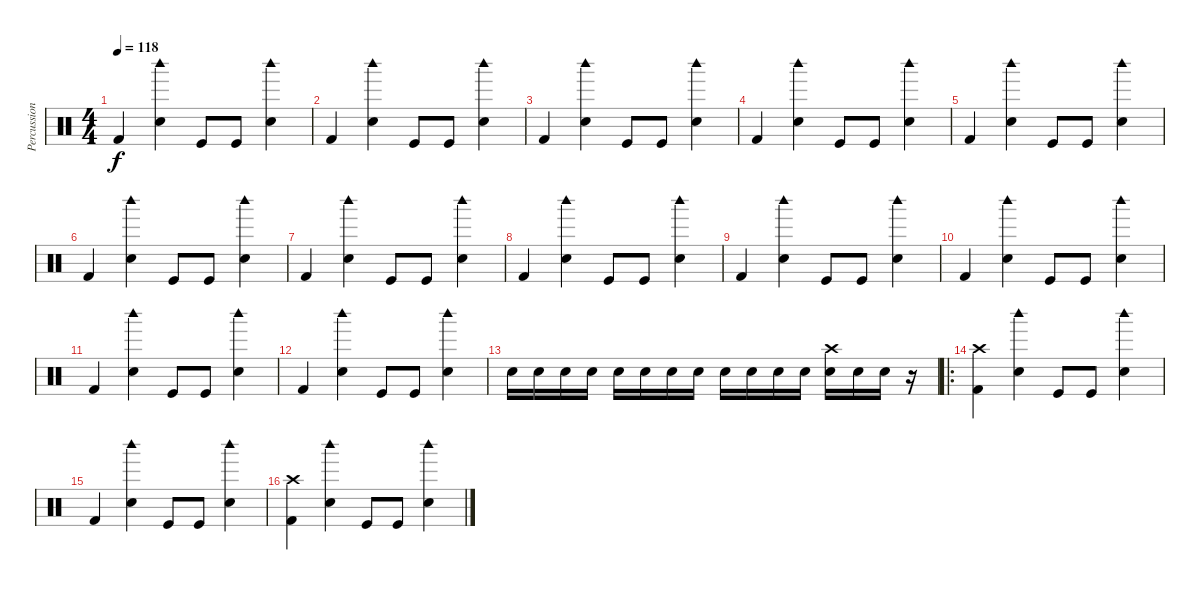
\track ("Percussion" "Percussion") {instrument percussion}
\staff {score}
\articulation defaults
\ts (4 4)
\tempo 118
\clef neutral
\ks c "Kick (hit) 2".4{dy f}
("Woodblock high (hit)" "Snare (hit) 2").4 "Kick (hit)".8 "Kick (hit)".8 ("Woodblock high (hit)" "Snare (hit) 2").4 |
"Kick (hit) 2".4 ("Woodblock high (hit)" "Snare (hit) 2").4 "Kick (hit)".8 "Kick (hit)".8 ("Woodblock high (hit)" "Snare (hit) 2").4 |
"Kick (hit) 2".4 ("Woodblock high (hit)" "Snare (hit) 2").4 "Kick (hit)".8 "Kick (hit)".8 ("Woodblock high (hit)" "Snare (hit) 2").4 |
"Kick (hit) 2".4 ("Woodblock high (hit)" "Snare (hit) 2").4 "Kick (hit)".8 "Kick (hit)".8 ("Woodblock high (hit)" "Snare (hit) 2").4 |
"Kick (hit) 2".4 ("Woodblock high (hit)" "Snare (hit) 2").4 "Kick (hit)".8 "Kick (hit)".8 ("Woodblock high (hit)" "Snare (hit) 2").4 |
"Kick (hit) 2".4 ("Woodblock high (hit)" "Snare (hit) 2").4 "Kick (hit)".8 "Kick (hit)".8 ("Woodblock high (hit)" "Snare (hit) 2").4 |
"Kick (hit) 2".4 ("Woodblock high (hit)" "Snare (hit) 2").4 "Kick (hit)".8 "Kick (hit)".8 ("Woodblock high (hit)" "Snare (hit) 2").4 |
"Kick (hit) 2".4 ("Woodblock high (hit)" "Snare (hit) 2").4 "Kick (hit)".8 "Kick (hit)".8 ("Woodblock high (hit)" "Snare (hit) 2").4 |
"Kick (hit) 2".4 ("Woodblock high (hit)" "Snare (hit) 2").4 "Kick (hit)".8 "Kick (hit)".8 ("Woodblock high (hit)" "Snare (hit) 2").4 |
"Kick (hit) 2".4 ("Woodblock high (hit)" "Snare (hit) 2").4 "Kick (hit)".8 "Kick (hit)".8 ("Woodblock high (hit)" "Snare (hit) 2").4 |
"Kick (hit) 2".4 ("Woodblock high (hit)" "Snare (hit) 2").4 "Kick (hit)".8 "Kick (hit)".8 ("Woodblock high (hit)" "Snare (hit) 2").4 |
"Kick (hit) 2".4 ("Woodblock high (hit)" "Snare (hit) 2").4 "Kick (hit)".8 "Kick (hit)".8 ("Woodblock high (hit)" "Snare (hit) 2").4 |
"Snare (hit) 2".16 "Snare (hit) 2".16 "Snare (hit) 2".16 "Snare (hit) 2".16 "Snare (hit) 2".16 "Snare (hit) 2".16 "Snare (hit) 2".16 "Snare (hit) 2".16 "Snare (hit) 2".16 "Snare (hit) 2".16 "Snare (hit) 2".16 "Snare (hit) 2".16 ("Crash high (hit)" "Snare (hit) 2").16 "Snare (hit) 2".16 "Snare (hit) 2".16 r.16 |
\ro
("Crash high (hit)" "Kick (hit) 2").4 ("Woodblock high (hit)" "Snare (hit) 2").4 "Kick (hit)".8 "Kick (hit)".8 ("Woodblock high (hit)" "Snare (hit) 2").4 |
"Kick (hit) 2".4 ("Woodblock high (hit)" "Snare (hit) 2").4 "Kick (hit)".8 "Kick (hit)".8 ("Woodblock high (hit)" "Snare (hit) 2").4 |
("Crash high (hit)" "Kick (hit) 2").4 ("Woodblock high (hit)" "Snare (hit) 2").4 "Kick (hit)".8 "Kick (hit)".8 ("Woodblock high (hit)" "Snare (hit) 2").4
